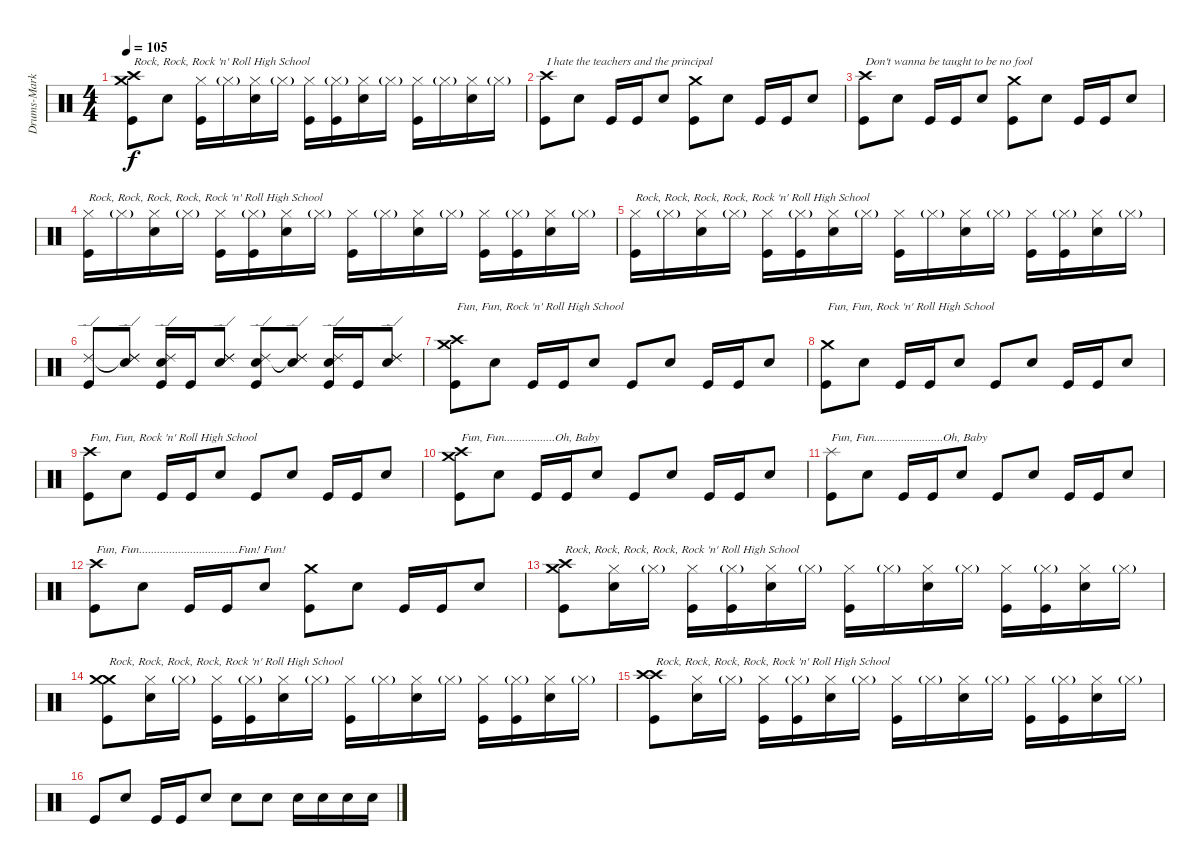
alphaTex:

\track ("Drums-Marky Ramone" "Drums-Mark") {instrument percussion}
\staff {score}
\articulation defaults
\ts (4 4)
\tempo 105
\clef neutral
\ks c
("Crash high (hit)" "Crash medium (hit)" "Kick (hit)").8{txt "Rock, Rock, Rock 'n' Roll High School" dy f} "Snare (hit) 2".8 ("Hi-Hat (closed)" "Kick (hit)").16 "Hi-Hat (closed)"{g}.16 ("Hi-Hat (closed)" "Snare (hit) 2").16 "Hi-Hat (closed)"{g}.16 ("Hi-Hat (closed)" "Kick (hit)").16 ("Hi-Hat (closed)"{g} "Kick (hit)").16 ("Hi-Hat (closed)" "Snare (hit) 2").16 "Hi-Hat (closed)"{g}.16 ("Hi-Hat (closed)" "Kick (hit)").16 "Hi-Hat (closed)"{g}.16 ("Hi-Hat (closed)" "Snare (hit) 2").16 "Hi-Hat (closed)"{g}.16 |
("Crash high (hit)" "Kick (hit)").8{txt "I hate the teachers and the principal"} "Snare (hit) 2".8 "Kick (hit)".16 "Kick (hit)".16 "Snare (hit) 2".8 ("Crash medium (hit)" "Kick (hit)").8 "Snare (hit) 2".8 "Kick (hit)".16 "Kick (hit)".16 "Snare (hit) 2".8 |
("Crash high (hit)" "Kick (hit)").8{txt "Don't wanna be taught to be no fool"} "Snare (hit) 2".8 "Kick (hit)".16 "Kick (hit)".16 "Snare (hit) 2".8 ("Crash medium (hit)" "Kick (hit)").8 "Snare (hit) 2".8 "Kick (hit)".16 "Kick (hit)".16 "Snare (hit) 2".8 |
("Hi-Hat (closed)" "Kick (hit)").16{txt "Rock, Rock, Rock, Rock, Rock 'n' Roll High School"} "Hi-Hat (closed)"{g}.16 ("Hi-Hat (closed)" "Snare (hit) 2").16 "Hi-Hat (closed)"{g}.16 ("Hi-Hat (closed)" "Kick (hit)").16 ("Hi-Hat (closed)"{g} "Kick (hit)").16 ("Hi-Hat (closed)" "Snare (hit) 2").16 "Hi-Hat (closed)"{g}.16 ("Hi-Hat (closed)" "Kick (hit)").16 "Hi-Hat (closed)"{g}.16 ("Hi-Hat (closed)" "Snare (hit) 2").16 "Hi-Hat (closed)"{g}.16 ("Hi-Hat (closed)" "Kick (hit)").16 ("Hi-Hat (closed)"{g} "Kick (hit)").16 ("Hi-Hat (closed)" "Snare (hit) 2").16 "Hi-Hat (closed)"{g}.16 |
("Hi-Hat (closed)" "Kick (hit)").16{txt "Rock, Rock, Rock, Rock, Rock 'n' Roll High School"} "Hi-Hat (closed)"{g}.16 ("Hi-Hat (closed)" "Snare (hit) 2").16 "Hi-Hat (closed)"{g}.16 ("Hi-Hat (closed)" "Kick (hit)").16 ("Hi-Hat (closed)"{g} "Kick (hit)").16 ("Hi-Hat (closed)" "Snare (hit) 2").16 "Hi-Hat (closed)"{g}.16 ("Hi-Hat (closed)" "Kick (hit)").16 "Hi-Hat (closed)"{g}.16 ("Hi-Hat (closed)" "Snare (hit) 2").16 "Hi-Hat (closed)"{g}.16 ("Hi-Hat (closed)" "Kick (hit)").16 ("Hi-Hat (closed)"{g} "Kick (hit)").16 ("Hi-Hat (closed)" "Snare (hit) 2").16 "Hi-Hat (closed)"{g}.16 |
("Ride (edge) 2" "Kick (hit)").8 ("Ride (edge) 2"{t} "Ride (edge) 2" "Snare (hit) 2").8 ("Ride (edge) 2" "Snare (hit)" "Kick (hit)").16 "Kick (hit)".16 ("Ride (edge) 2" "Ride (edge) 2" "Snare (hit) 2").8 ("Ride (edge) 2" "Snare (hit)" "Kick (hit)").8 ("Ride (edge) 2"{t} "Ride (edge) 2" "Snare (hit) 2").8 ("Ride (edge) 2" "Snare (hit)" "Kick (hit)").16 "Kick (hit)".16 ("Ride (edge) 2" "Ride (edge) 2" "Snare (hit) 2").8 |
("Crash medium (hit)" "Crash high (hit)" "Kick (hit)").8{txt "Fun, Fun, Rock 'n' Roll High School"} "Snare (hit) 2".8 "Kick (hit)".16 "Kick (hit)".16 "Snare (hit) 2".8 "Kick (hit)".8 "Snare (hit) 2".8 "Kick (hit)".16 "Kick (hit)".16 "Snare (hit) 2".8 |
("Crash medium (hit)" "Kick (hit)").8{txt "Fun, Fun, Rock 'n' Roll High School"} "Snare (hit) 2".8 "Kick (hit)".16 "Kick (hit)".16 "Snare (hit) 2".8 "Kick (hit)".8 "Snare (hit) 2".8 "Kick (hit)".16 "Kick (hit)".16 "Snare (hit) 2".8 |
("Crash high (hit)" "Kick (hit)").8{txt "Fun, Fun, Rock 'n' Roll High School"} "Snare (hit) 2".8 "Kick (hit)".16 "Kick (hit)".16 "Snare (hit) 2".8 "Kick (hit)".8 "Snare (hit) 2".8 "Kick (hit)".16 "Kick (hit)".16 "Snare (hit) 2".8 |
("Crash medium (hit)" "Crash high (hit)" "Kick (hit)").8{txt "Fun, Fun.................Oh, Baby"} "Snare (hit) 2".8 "Kick (hit)".16 "Kick (hit)".16 "Snare (hit) 2".8 "Kick (hit)".8 "Snare (hit) 2".8 "Kick (hit)".16 "Kick (hit)".16 "Snare (hit) 2".8 |
("Splash (hit)" "Kick (hit)").8{txt "Fun, Fun.......................Oh, Baby"} "Snare (hit) 2".8 "Kick (hit)".16 "Kick (hit)".16 "Snare (hit) 2".8 "Kick (hit)".8 "Snare (hit) 2".8 "Kick (hit)".16 "Kick (hit)".16 "Snare (hit) 2".8 |
("Crash high (hit)" "Kick (hit)").8{txt "Fun, Fun.................................Fun! Fun!"} "Snare (hit) 2".8 "Kick (hit)".16 "Kick (hit)".16 "Snare (hit) 2".8 ("Crash medium (hit)" "Kick (hit)").8 "Snare (hit) 2".8 "Kick (hit)".16 "Kick (hit)".16 "Snare (hit) 2".8 |
("Crash medium (hit)" "Crash high (hit)" "Kick (hit)").8{txt "Rock, Rock, Rock, Rock, Rock 'n' Roll High School"} ("Hi-Hat (closed)" "Snare (hit) 2").16 "Hi-Hat (closed)"{g}.16 ("Hi-Hat (closed)" "Kick (hit)").16 ("Hi-Hat (closed)"{g} "Kick (hit)").16 ("Hi-Hat (closed)" "Snare (hit) 2").16 "Hi-Hat (closed)"{g}.16 ("Hi-Hat (closed)" "Kick (hit)").16 "Hi-Hat (closed)"{g}.16 ("Hi-Hat (closed)" "Snare (hit) 2").16 "Hi-Hat (closed)"{g}.16 ("Hi-Hat (closed)" "Kick (hit)").16 ("Hi-Hat (closed)"{g} "Kick (hit)").16 ("Hi-Hat (closed)" "Snare (hit) 2").16 "Hi-Hat (closed)"{g}.16 |
("Crash medium (hit)" "Crash medium (hit)" "Kick (hit)").8{txt "Rock, Rock, Rock, Rock, Rock 'n' Roll High School"} ("Hi-Hat (closed)" "Snare (hit) 2").16 "Hi-Hat (closed)"{g}.16 ("Hi-Hat (closed)" "Kick (hit)").16 ("Hi-Hat (closed)"{g} "Kick (hit)").16 ("Hi-Hat (closed)" "Snare (hit) 2").16 "Hi-Hat (closed)"{g}.16 ("Hi-Hat (closed)" "Kick (hit)").16 "Hi-Hat (closed)"{g}.16 ("Hi-Hat (closed)" "Snare (hit) 2").16 "Hi-Hat (closed)"{g}.16 ("Hi-Hat (closed)" "Kick (hit)").16 ("Hi-Hat (closed)"{g} "Kick (hit)").16 ("Hi-Hat (closed)" "Snare (hit) 2").16 "Hi-Hat (closed)"{g}.16 |
("Crash high (hit)" "Crash high (hit)" "Kick (hit)").8{txt "Rock, Rock, Rock, Rock, Rock 'n' Roll High School"} ("Hi-Hat (closed)" "Snare (hit) 2").16 "Hi-Hat (closed)"{g}.16 ("Hi-Hat (closed)" "Kick (hit)").16 ("Hi-Hat (closed)"{g} "Kick (hit)").16 ("Hi-Hat (closed)" "Snare (hit) 2").16 "Hi-Hat (closed)"{g}.16 ("Hi-Hat (closed)" "Kick (hit)").16 "Hi-Hat (closed)"{g}.16 ("Hi-Hat (closed)" "Snare (hit) 2").16 "Hi-Hat (closed)"{g}.16 ("Hi-Hat (closed)" "Kick (hit)").16 ("Hi-Hat (closed)"{g} "Kick (hit)").16 ("Hi-Hat (closed)" "Snare (hit) 2").16 "Hi-Hat (closed)"{g}.16 |
"Kick (hit)".8 "Snare (hit) 2".8 "Kick (hit)".16 "Kick (hit)".16 "Snare (hit) 2".8 "Snare (hit) 2".8 "Snare (hit) 2".8 "Snare (hit) 2".16 "Snare (hit) 2".16 "Snare (hit) 2".16 "Snare (hit) 2".16
